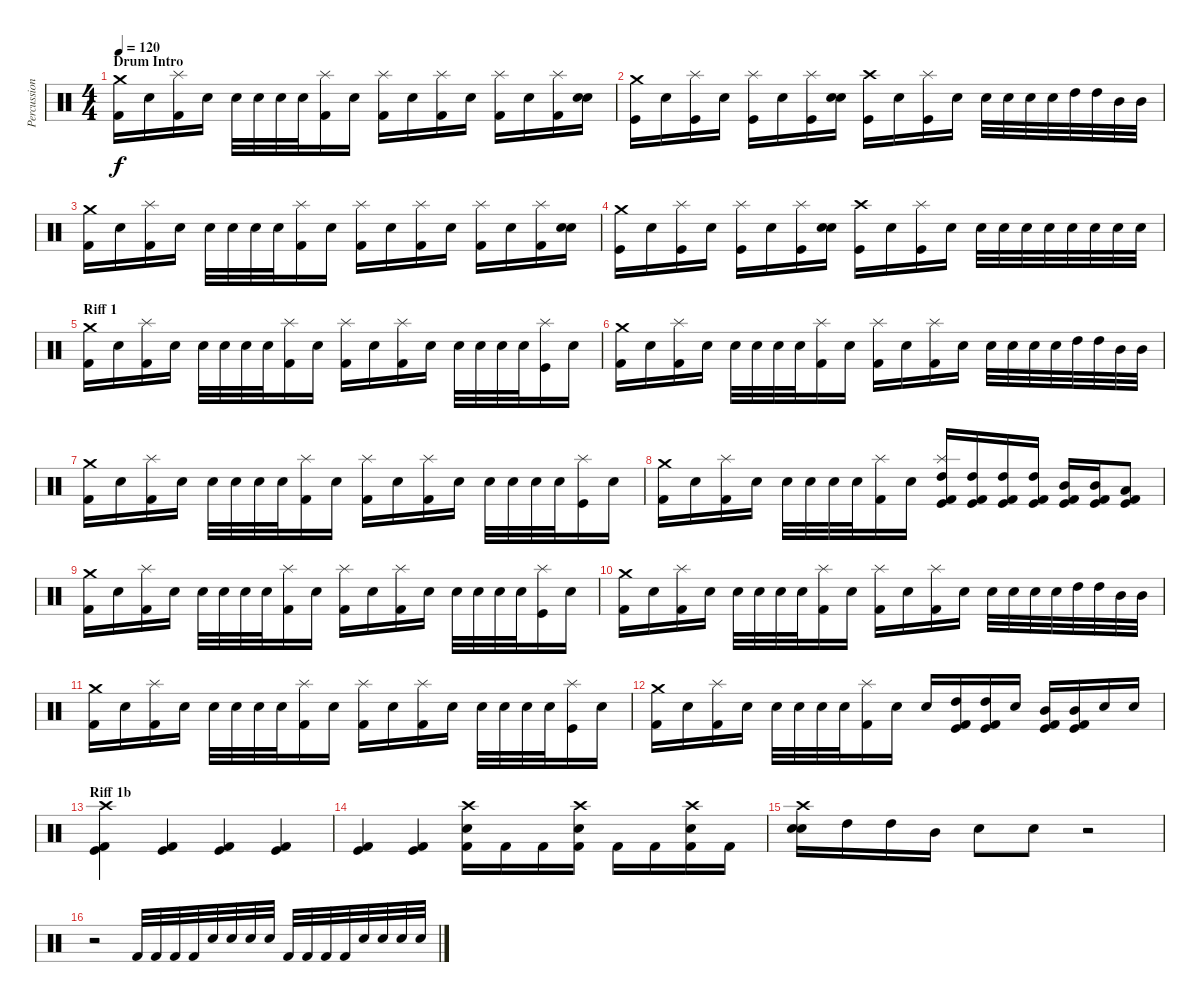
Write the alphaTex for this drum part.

\track ("Percussion" "Percussion") {instrument percussion}
\staff {score}
\articulation defaults
\ts (4 4)
\section ("" "Drum Intro")
\tempo 120
\clef neutral
\ks c
("Crash medium (hit)" "Kick (hit) 2").16{dy f} "Electric Snare (hit)".16 ("Splash (hit)" "Kick (hit) 2").16 "Electric Snare (hit)".16 "Electric Snare (hit)".32 "Electric Snare (hit)".32 "Electric Snare (hit)".32 "Electric Snare (hit)".32 ("Splash (hit)" "Kick (hit) 2").16 "Electric Snare (hit)".16 ("Splash (hit)" "Kick (hit) 2").16 "Electric Snare (hit)".16 ("Splash (hit)" "Kick (hit) 2").16 "Electric Snare (hit)".16 ("Splash (hit)" "Kick (hit) 2").16 "Electric Snare (hit)".16 ("Splash (hit)" "Kick (hit) 2").16 ("Snare (hit) 2" "Electric Snare (hit)").16 |
("Crash medium (hit)" "Kick (hit)").16 "Electric Snare (hit)".16 ("Splash (hit)" "Kick (hit)").16 "Electric Snare (hit)".16 ("Splash (hit)" "Kick (hit)").16 "Electric Snare (hit)".16 ("Splash (hit)" "Kick (hit)").16 ("Snare (hit) 2" "Electric Snare (hit)").16 ("Crash high (hit)" "Kick (hit)").16 "Electric Snare (hit)".16 ("Splash (hit)" "Kick (hit)").16 "Electric Snare (hit)".16 "Electric Snare (hit)".32 "Electric Snare (hit)".32 "Electric Snare (hit)".32 "Electric Snare (hit)".32 "High Tom (hit)".32 "High Tom (hit)".32 "Mid Tom (hit)".32 "Mid Tom (hit)".32 |
("Crash medium (hit)" "Kick (hit) 2").16 "Electric Snare (hit)".16 ("Splash (hit)" "Kick (hit) 2").16 "Electric Snare (hit)".16 "Electric Snare (hit)".32 "Electric Snare (hit)".32 "Electric Snare (hit)".32 "Electric Snare (hit)".32 ("Splash (hit)" "Kick (hit) 2").16 "Electric Snare (hit)".16 ("Splash (hit)" "Kick (hit) 2").16 "Electric Snare (hit)".16 ("Splash (hit)" "Kick (hit) 2").16 "Electric Snare (hit)".16 ("Splash (hit)" "Kick (hit) 2").16 "Electric Snare (hit)".16 ("Splash (hit)" "Kick (hit) 2").16 ("Snare (hit) 2" "Electric Snare (hit)").16 |
("Crash medium (hit)" "Kick (hit)").16 "Electric Snare (hit)".16 ("Splash (hit)" "Kick (hit)").16 "Electric Snare (hit)".16 ("Splash (hit)" "Kick (hit)").16 "Electric Snare (hit)".16 ("Splash (hit)" "Kick (hit)").16 ("Snare (hit) 2" "Electric Snare (hit)").16 ("Crash high (hit)" "Kick (hit)").16 "Electric Snare (hit)".16 ("Splash (hit)" "Kick (hit)").16 "Electric Snare (hit)".16 "Electric Snare (hit)".32 "Electric Snare (hit)".32 "Electric Snare (hit)".32 "Electric Snare (hit)".32 "Electric Snare (hit)".32 "Electric Snare (hit)".32 "Electric Snare (hit)".32 "Electric Snare (hit)".32 |
\section ("" "Riff 1")
("Crash medium (hit)" "Kick (hit) 2").16 "Electric Snare (hit)".16 ("Splash (hit)" "Kick (hit) 2").16 "Electric Snare (hit)".16 "Electric Snare (hit)".32 "Electric Snare (hit)".32 "Electric Snare (hit)".32 "Electric Snare (hit)".32 ("Splash (hit)" "Kick (hit) 2").16 "Electric Snare (hit)".16 ("Splash (hit)" "Kick (hit) 2").16 "Electric Snare (hit)".16 ("Splash (hit)" "Kick (hit) 2").16 "Electric Snare (hit)".16 "Electric Snare (hit)".32 "Electric Snare (hit)".32 "Electric Snare (hit)".32 "Electric Snare (hit)".32 ("Splash (hit)" "Kick (hit)").16 "Electric Snare (hit)".16 |
("Crash medium (hit)" "Kick (hit) 2").16 "Electric Snare (hit)".16 ("Splash (hit)" "Kick (hit) 2").16 "Electric Snare (hit)".16 "Electric Snare (hit)".32 "Electric Snare (hit)".32 "Electric Snare (hit)".32 "Electric Snare (hit)".32 ("Splash (hit)" "Kick (hit) 2").16 "Electric Snare (hit)".16 ("Splash (hit)" "Kick (hit) 2").16 "Electric Snare (hit)".16 ("Splash (hit)" "Kick (hit) 2").16 "Electric Snare (hit)".16 "Electric Snare (hit)".32 "Electric Snare (hit)".32 "Electric Snare (hit)".32 "Electric Snare (hit)".32 "High Tom (hit)".32 "High Tom (hit)".32 "Mid Tom (hit)".32 "Mid Tom (hit)".32 |
("Crash medium (hit)" "Kick (hit) 2").16 "Electric Snare (hit)".16 ("Splash (hit)" "Kick (hit) 2").16 "Electric Snare (hit)".16 "Electric Snare (hit)".32 "Electric Snare (hit)".32 "Electric Snare (hit)".32 "Electric Snare (hit)".32 ("Splash (hit)" "Kick (hit) 2").16 "Electric Snare (hit)".16 ("Splash (hit)" "Kick (hit) 2").16 "Electric Snare (hit)".16 ("Splash (hit)" "Kick (hit) 2").16 "Electric Snare (hit)".16 "Electric Snare (hit)".32 "Electric Snare (hit)".32 "Electric Snare (hit)".32 "Electric Snare (hit)".32 ("Splash (hit)" "Kick (hit)").16 "Electric Snare (hit)".16 |
("Crash medium (hit)" "Kick (hit) 2").16 "Electric Snare (hit)".16 ("Splash (hit)" "Kick (hit) 2").16 "Electric Snare (hit)".16 "Electric Snare (hit)".32 "Electric Snare (hit)".32 "Electric Snare (hit)".32 "Electric Snare (hit)".32 ("Splash (hit)" "Kick (hit) 2").16 "Electric Snare (hit)".16 ("Splash (hit)" "High Tom (hit)" "Kick (hit)" "Kick (hit) 2").16 ("High Tom (hit)" "Kick (hit)" "Kick (hit) 2").16 ("High Tom (hit)" "Kick (hit)" "Kick (hit) 2").16 ("High Tom (hit)" "Kick (hit)" "Kick (hit) 2").16 ("Mid Tom (hit)" "Kick (hit)" "Kick (hit) 2").16 ("Mid Tom (hit)" "Kick (hit)" "Kick (hit) 2").16 ("Low Tom (hit)" "Kick (hit)" "Kick (hit) 2").8 |
("Crash medium (hit)" "Kick (hit) 2").16 "Electric Snare (hit)".16 ("Splash (hit)" "Kick (hit) 2").16 "Electric Snare (hit)".16 "Electric Snare (hit)".32 "Electric Snare (hit)".32 "Electric Snare (hit)".32 "Electric Snare (hit)".32 ("Splash (hit)" "Kick (hit) 2").16 "Electric Snare (hit)".16 ("Splash (hit)" "Kick (hit) 2").16 "Electric Snare (hit)".16 ("Splash (hit)" "Kick (hit) 2").16 "Electric Snare (hit)".16 "Electric Snare (hit)".32 "Electric Snare (hit)".32 "Electric Snare (hit)".32 "Electric Snare (hit)".32 ("Splash (hit)" "Kick (hit)").16 "Electric Snare (hit)".16 |
("Crash medium (hit)" "Kick (hit) 2").16 "Electric Snare (hit)".16 ("Splash (hit)" "Kick (hit) 2").16 "Electric Snare (hit)".16 "Electric Snare (hit)".32 "Electric Snare (hit)".32 "Electric Snare (hit)".32 "Electric Snare (hit)".32 ("Splash (hit)" "Kick (hit) 2").16 "Electric Snare (hit)".16 ("Splash (hit)" "Kick (hit) 2").16 "Electric Snare (hit)".16 ("Splash (hit)" "Kick (hit) 2").16 "Electric Snare (hit)".16 "Electric Snare (hit)".32 "Electric Snare (hit)".32 "Electric Snare (hit)".32 "Electric Snare (hit)".32 "High Tom (hit)".32 "High Tom (hit)".32 "Mid Tom (hit)".32 "Mid Tom (hit)".32 |
("Crash medium (hit)" "Kick (hit) 2").16 "Electric Snare (hit)".16 ("Splash (hit)" "Kick (hit) 2").16 "Electric Snare (hit)".16 "Electric Snare (hit)".32 "Electric Snare (hit)".32 "Electric Snare (hit)".32 "Electric Snare (hit)".32 ("Splash (hit)" "Kick (hit) 2").16 "Electric Snare (hit)".16 ("Splash (hit)" "Kick (hit) 2").16 "Electric Snare (hit)".16 ("Splash (hit)" "Kick (hit) 2").16 "Electric Snare (hit)".16 "Electric Snare (hit)".32 "Electric Snare (hit)".32 "Electric Snare (hit)".32 "Electric Snare (hit)".32 ("Splash (hit)" "Kick (hit)").16 "Electric Snare (hit)".16 |
("Crash medium (hit)" "Kick (hit) 2").16 "Electric Snare (hit)".16 ("Splash (hit)" "Kick (hit) 2").16 "Electric Snare (hit)".16 "Electric Snare (hit)".32 "Electric Snare (hit)".32 "Electric Snare (hit)".32 "Electric Snare (hit)".32 ("Splash (hit)" "Kick (hit) 2").16 "Electric Snare (hit)".16 "Electric Snare (hit)".16 ("High Tom (hit)" "Kick (hit)" "Kick (hit) 2").16 ("High Tom (hit)" "Kick (hit)" "Kick (hit) 2").16 "Electric Snare (hit)".16 ("Mid Tom (hit)" "Kick (hit)" "Kick (hit) 2").16 ("Mid Tom (hit)" "Kick (hit)" "Kick (hit) 2").16 "Electric Snare (hit)".16 "Electric Snare (hit)".16 |
\section ("" "Riff 1b")
("Crash high (hit)" "Kick (hit) 2" "Kick (hit)").4 ("Kick (hit) 2" "Kick (hit)").4 ("Kick (hit) 2" "Kick (hit)").4 ("Kick (hit) 2" "Kick (hit)").4 |
("Kick (hit) 2" "Kick (hit)").4 ("Kick (hit) 2" "Kick (hit)").4 ("Crash high (hit)" "Electric Snare (hit)" "Kick (hit) 2").16 "Kick (hit) 2".16 "Kick (hit) 2".16 ("Crash high (hit)" "Electric Snare (hit)" "Kick (hit) 2").16 "Kick (hit) 2".16 "Kick (hit) 2".16 ("Crash high (hit)" "Electric Snare (hit)" "Kick (hit) 2").16 "Kick (hit) 2".16 |
("Crash high (hit)" "Snare (hit) 2" "Electric Snare (hit)").16 "High Tom (hit)".16 "High Tom (hit)".16 "Mid Tom (hit)".16 "Electric Snare (hit)".8 "Electric Snare (hit)".8 r.2 |
r.2 "Kick (hit) 2".32 "Kick (hit) 2".32 "Kick (hit) 2".32 "Kick (hit) 2".32 "Electric Snare (hit)".32 "Electric Snare (hit)".32 "Electric Snare (hit)".32 "Electric Snare (hit)".32 "Kick (hit) 2".32 "Kick (hit) 2".32 "Kick (hit) 2".32 "Kick (hit) 2".32 "Electric Snare (hit)".32 "Electric Snare (hit)".32 "Electric Snare (hit)".32 "Electric Snare (hit)".32
